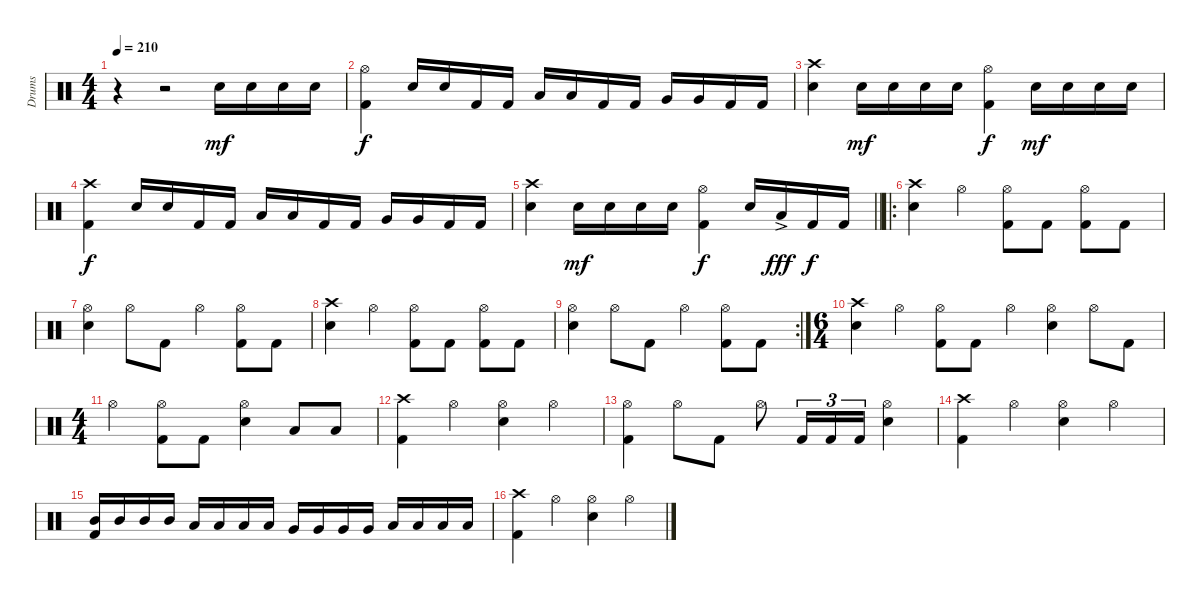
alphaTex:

\track ("Drums" "Drums") {instrument percussion}
\staff {score}
\articulation defaults
\ts (4 4)
\tempo 210
\clef neutral
\ks c
r.4{dy mf} r.2 "Snare (hit) 2".16 "Snare (hit) 2".16 "Snare (hit) 2".16 "Snare (hit) 2".16 |
("Hi-Hat (open)" "Kick (hit) 2").4{dy f} "Snare (hit) 2".16 "Snare (hit) 2".16 "Kick (hit) 2".16 "Kick (hit) 2".16 "Low Tom (hit)".16 "Low Tom (hit)".16 "Kick (hit) 2".16 "Kick (hit) 2".16 "Very Low Tom (hit)".16 "Very Low Tom (hit)".16 "Kick (hit) 2".16 "Kick (hit) 2".16 |
("Crash high (hit)" "Snare (hit) 2").4 "Snare (hit) 2".16{dy mf} "Snare (hit) 2".16 "Snare (hit) 2".16 "Snare (hit) 2".16 ("Hi-Hat (open)" "Kick (hit) 2").4{dy f} "Snare (hit) 2".16{dy mf} "Snare (hit) 2".16 "Snare (hit) 2".16 "Snare (hit) 2".16 |
("Crash high (hit)" "Kick (hit) 2").4{dy f} "Snare (hit) 2".16 "Snare (hit) 2".16 "Kick (hit) 2".16 "Kick (hit) 2".16 "Low Tom (hit)".16 "Low Tom (hit)".16 "Kick (hit) 2".16 "Kick (hit) 2".16 "Very Low Tom (hit)".16 "Very Low Tom (hit)".16 "Kick (hit) 2".16 "Kick (hit) 2".16 |
\barLineRight lightlight
("Crash high (hit)" "Snare (hit) 2").4 "Snare (hit) 2".16{dy mf} "Snare (hit) 2".16 "Snare (hit) 2".16 "Snare (hit) 2".16 ("Hi-Hat (open)" "Kick (hit) 2").4{dy f} "Snare (hit) 2".16 "Low Tom (hit)"{ac}.16{dy fff} "Kick (hit) 2".16{dy f} "Kick (hit) 2".16 |
\ro
("Crash high (hit)" "Snare (hit) 2").4 "Hi-Hat (open)".4 ("Hi-Hat (open)" "Kick (hit) 2").8 "Kick (hit) 2".8 ("Hi-Hat (open)" "Kick (hit) 2").8 "Kick (hit) 2".8 |
("Hi-Hat (open)" "Snare (hit) 2").4 "Hi-Hat (open)".8 "Kick (hit) 2".8 "Hi-Hat (open)".4 ("Hi-Hat (open)" "Kick (hit) 2").8 "Kick (hit) 2".8 |
("Crash high (hit)" "Snare (hit) 2").4 "Hi-Hat (open)".4 ("Hi-Hat (open)" "Kick (hit) 2").8 "Kick (hit) 2".8 ("Hi-Hat (open)" "Kick (hit) 2").8 "Kick (hit) 2".8 |
\rc 2
("Hi-Hat (open)" "Snare (hit) 2").4 "Hi-Hat (open)".8 "Kick (hit) 2".8 "Hi-Hat (open)".4 ("Hi-Hat (open)" "Kick (hit) 2").8 "Kick (hit) 2".8 |
\ts (6 4)
("Crash high (hit)" "Snare (hit) 2").4 "Hi-Hat (open)".4 ("Hi-Hat (open)" "Kick (hit) 2").8 "Kick (hit) 2".8 "Hi-Hat (open)".4 ("Hi-Hat (open)" "Snare (hit) 2").4 "Hi-Hat (open)".8 "Kick (hit) 2".8 |
\ts (4 4)
"Hi-Hat (open)".4 ("Hi-Hat (open)" "Kick (hit) 2").8 "Kick (hit) 2".8 ("Hi-Hat (open)" "Snare (hit) 2").4 "Low Tom (hit)".8 "Low Tom (hit)".8 |
("Crash high (hit)" "Kick (hit) 2").4 "Hi-Hat (open)".4 ("Hi-Hat (open)" "Snare (hit) 2").4 "Hi-Hat (open)".4 |
("Hi-Hat (open)" "Kick (hit) 2").4 "Hi-Hat (open)".8 "Kick (hit) 2".8 "Hi-Hat (open)".8 "Kick (hit) 2".16{tu (3 2)} "Kick (hit) 2".16{tu (3 2)} "Kick (hit) 2".16{tu (3 2)} ("Hi-Hat (open)" "Snare (hit) 2").4 |
("Crash high (hit)" "Kick (hit) 2").4 "Hi-Hat (open)".4 ("Hi-Hat (open)" "Snare (hit) 2").4 "Hi-Hat (open)".4 |
("Mid Tom (hit)" "Kick (hit) 2").16 "Mid Tom (hit)".16 "Mid Tom (hit)".16 "Mid Tom (hit)".16 "Low Tom (hit)".16 "Low Tom (hit)".16 "Low Tom (hit)".16 "Low Tom (hit)".16 "Very Low Tom (hit)".16 "Very Low Tom (hit)".16 "Very Low Tom (hit)".16 "Very Low Tom (hit)".16 "Low Floor Tom (hit)".16 "Low Floor Tom (hit)".16 "Low Floor Tom (hit)".16 "Low Floor Tom (hit)".16 |
("Crash high (hit)" "Kick (hit) 2").4 "Hi-Hat (open)".4 ("Hi-Hat (open)" "Snare (hit) 2").4 "Hi-Hat (open)".4
